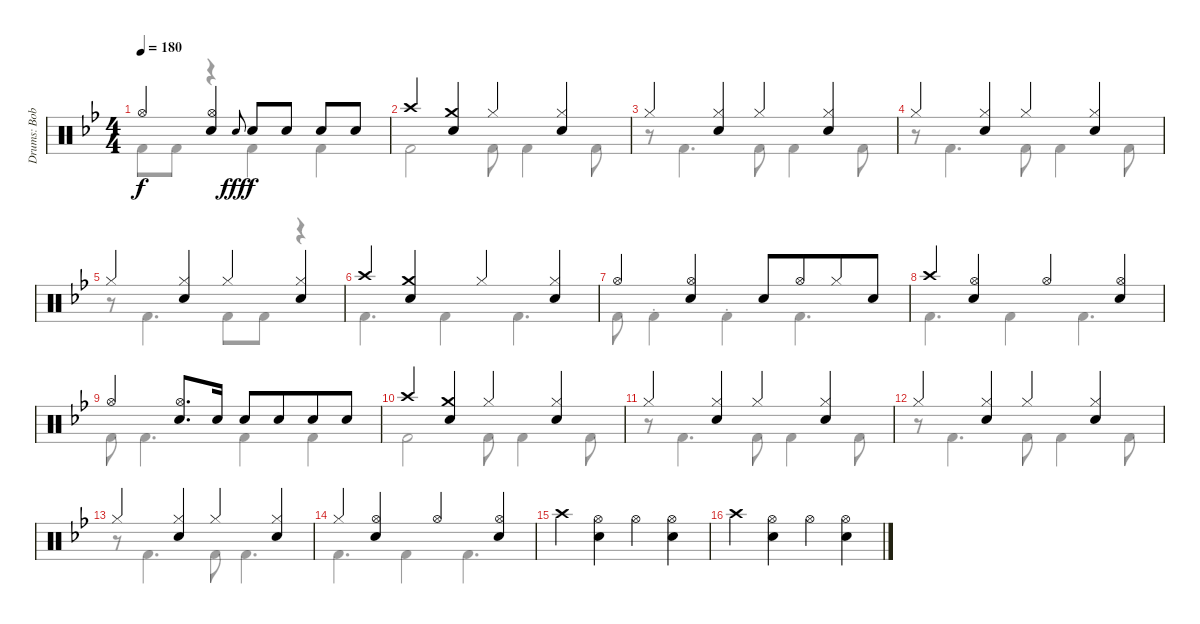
\track ("Drums: Bobby" "Drums: Bob") {instrument percussion}
\staff {score}
\articulation defaults
\voice
\ts (4 4)
\tempo 180
\clef neutral
\ks bb "Hi-Hat (open)".4{dy f}
("Hi-Hat (open)" "Snare (hit) 2").4 "Electric Snare (hit)".8{gr onbeat dy fff} "Snare (hit) 2".8{dy f} "Snare (hit) 2".8 "Snare (hit) 2".8 "Snare (hit) 2".8 |
"Crash high (hit)".4 ("Crash medium (hit)" "Snare (hit) 2").4 "Hi-Hat (closed)".4 ("Hi-Hat (closed)" "Snare (hit) 2").4 |
"Hi-Hat (closed)".4 ("Hi-Hat (closed)" "Snare (hit) 2").4 "Hi-Hat (closed)".4 ("Hi-Hat (closed)" "Snare (hit) 2").4 |
"Hi-Hat (closed)".4 ("Hi-Hat (closed)" "Snare (hit) 2").4 "Hi-Hat (closed)".4 ("Hi-Hat (closed)" "Snare (hit) 2").4 |
"Hi-Hat (closed)".4 ("Hi-Hat (closed)" "Snare (hit) 2").4 "Hi-Hat (closed)".4 ("Hi-Hat (closed)" "Snare (hit) 2").4 |
"Crash high (hit)".4 ("Crash medium (hit)" "Snare (hit) 2").4 "Hi-Hat (closed)".4 ("Hi-Hat (closed)" "Snare (hit) 2").4 |
"Hi-Hat (open)".4 ("Hi-Hat (open)" "Snare (hit) 2").4 "Snare (hit) 2".8 "Hi-Hat (open)".8{beam merge} "Hi-Hat (closed)".8 "Snare (hit) 2".8 |
"Crash high (hit)".4 ("Hi-Hat (open)" "Snare (hit) 2").4 "Hi-Hat (open)".4 ("Hi-Hat (open)" "Snare (hit) 2").4 |
"Hi-Hat (open)".4 ("Hi-Hat (open)" "Snare (hit) 2").8{d} "Snare (hit) 2".16 "Snare (hit) 2".8 "Snare (hit) 2".8{beam merge} "Snare (hit) 2".8 "Snare (hit) 2".8 |
"Crash high (hit)".4 ("Crash medium (hit)" "Snare (hit) 2").4 "Hi-Hat (closed)".4 ("Hi-Hat (closed)" "Snare (hit) 2").4 |
"Hi-Hat (closed)".4 ("Hi-Hat (closed)" "Snare (hit) 2").4 "Hi-Hat (closed)".4 ("Hi-Hat (closed)" "Snare (hit) 2").4 |
"Hi-Hat (closed)".4 ("Hi-Hat (closed)" "Snare (hit) 2").4 "Hi-Hat (closed)".4 ("Hi-Hat (closed)" "Snare (hit) 2").4 |
"Hi-Hat (closed)".4 ("Hi-Hat (closed)" "Snare (hit) 2").4 "Hi-Hat (closed)".4 ("Hi-Hat (closed)" "Snare (hit) 2").4 |
"Hi-Hat (closed)".4 ("Hi-Hat (open)" "Snare (hit) 2").4 "Hi-Hat (open)".4 ("Hi-Hat (open)" "Snare (hit) 2").4 |
"Crash high (hit)".4 ("Hi-Hat (open)" "Snare (hit) 2").4 "Hi-Hat (open)".4 ("Hi-Hat (open)" "Snare (hit) 2").4 |
"Crash high (hit)".4 ("Hi-Hat (open)" "Snare (hit) 2").4 "Hi-Hat (open)".4 ("Hi-Hat (open)" "Snare (hit) 2").4
\voice
\clef neutral
\ottava regular
\simile none
\ks bb "Kick (hit) 2".8{dy f} "Kick (hit) 2".8
r.4 "Kick (hit) 2".4 "Kick (hit) 2".4 |
"Kick (hit) 2".2 "Kick (hit) 2".8 "Kick (hit) 2".4 "Kick (hit) 2".8 |
r.8 "Kick (hit) 2".4{d} "Kick (hit) 2".8 "Kick (hit) 2".4 "Kick (hit) 2".8 |
r.8 "Kick (hit) 2".4{d} "Kick (hit) 2".8 "Kick (hit) 2".4 "Kick (hit) 2".8 |
r.8 "Kick (hit) 2".4{d} "Kick (hit) 2".8 "Kick (hit) 2".8 r.4 |
"Kick (hit) 2".4{d} "Kick (hit) 2".4 "Kick (hit) 2".4{d} |
"Kick (hit) 2".8 "Kick (hit) 2"{st}.4 "Kick (hit) 2"{st}.4 "Kick (hit) 2".4{d} |
"Kick (hit) 2".4{d} "Kick (hit) 2".4 "Kick (hit) 2".4{d} |
"Kick (hit) 2".8 "Kick (hit) 2".4{d} "Kick (hit) 2".4 "Kick (hit) 2".4 |
"Kick (hit) 2".2 "Kick (hit) 2".8 "Kick (hit) 2".4 "Kick (hit) 2".8 |
r.8 "Kick (hit) 2".4{d} "Kick (hit) 2".8 "Kick (hit) 2".4 "Kick (hit) 2".8 |
r.8 "Kick (hit) 2".4{d} "Kick (hit) 2".8 "Kick (hit) 2".4 "Kick (hit) 2".8 |
r.8 "Kick (hit) 2".4{d} "Kick (hit) 2".8 "Kick (hit) 2".4{d} |
"Kick (hit) 2".4{d} "Kick (hit) 2".4 "Kick (hit) 2".4{d} |
|
